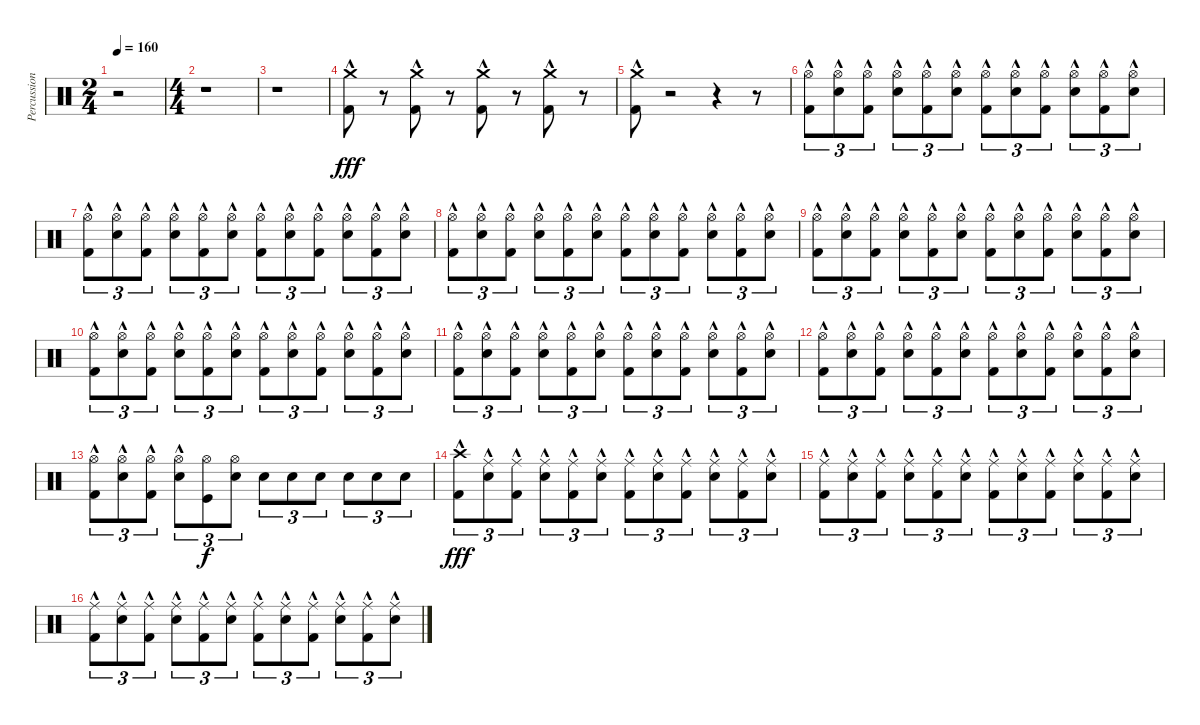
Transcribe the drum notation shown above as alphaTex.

\track ("Percussion" "Percussion") {instrument percussion}
\staff {score}
\articulation defaults
\ts (2 4)
\tempo 160
\clef neutral
\ks c
r.2{dy fff} |
\ts (4 4)
r.1 |
r.1 |
("Crash medium (hit)" "Kick (hit) 2"{hac}).8 r.8{volume 0} ("Crash medium (hit)" "Kick (hit) 2"{hac}).8{volume 13} r.8{volume 0} ("Crash medium (hit)" "Kick (hit) 2"{hac}).8{volume 13} r.8{volume 0} ("Crash medium (hit)" "Kick (hit) 2"{hac}).8{volume 13} r.8{volume 0} |
("Crash medium (hit)" "Kick (hit) 2"{hac}).8{volume 13} r.2{volume 0} r.4 r.8 |
("Hi-Hat (open)" "Kick (hit) 2"{hac}).8{tu (3 2) volume 16} ("Hi-Hat (open)" "Electric Snare (hit)"{hac}).8{tu (3 2)} ("Hi-Hat (open)" "Kick (hit) 2"{hac}).8{tu (3 2)} ("Hi-Hat (open)" "Electric Snare (hit)"{hac}).8{tu (3 2)} ("Hi-Hat (open)" "Kick (hit) 2"{hac}).8{tu (3 2)} ("Hi-Hat (open)" "Electric Snare (hit)"{hac}).8{tu (3 2)} ("Hi-Hat (open)" "Kick (hit) 2"{hac}).8{tu (3 2)} ("Hi-Hat (open)" "Electric Snare (hit)"{hac}).8{tu (3 2)} ("Hi-Hat (open)" "Kick (hit) 2"{hac}).8{tu (3 2)} ("Hi-Hat (open)" "Electric Snare (hit)"{hac}).8{tu (3 2)} ("Hi-Hat (open)" "Kick (hit) 2"{hac}).8{tu (3 2)} ("Hi-Hat (open)" "Electric Snare (hit)"{hac}).8{tu (3 2)} |
("Hi-Hat (open)" "Kick (hit) 2"{hac}).8{tu (3 2)} ("Hi-Hat (open)" "Electric Snare (hit)"{hac}).8{tu (3 2)} ("Hi-Hat (open)" "Kick (hit) 2"{hac}).8{tu (3 2)} ("Hi-Hat (open)" "Electric Snare (hit)"{hac}).8{tu (3 2)} ("Hi-Hat (open)" "Kick (hit) 2"{hac}).8{tu (3 2)} ("Hi-Hat (open)" "Electric Snare (hit)"{hac}).8{tu (3 2)} ("Hi-Hat (open)" "Kick (hit) 2"{hac}).8{tu (3 2)} ("Hi-Hat (open)" "Electric Snare (hit)"{hac}).8{tu (3 2)} ("Hi-Hat (open)" "Kick (hit) 2"{hac}).8{tu (3 2)} ("Hi-Hat (open)" "Electric Snare (hit)"{hac}).8{tu (3 2)} ("Hi-Hat (open)" "Kick (hit) 2"{hac}).8{tu (3 2)} ("Hi-Hat (open)" "Electric Snare (hit)"{hac}).8{tu (3 2)} |
("Hi-Hat (open)" "Kick (hit) 2"{hac}).8{tu (3 2)} ("Hi-Hat (open)" "Electric Snare (hit)"{hac}).8{tu (3 2)} ("Hi-Hat (open)" "Kick (hit) 2"{hac}).8{tu (3 2)} ("Hi-Hat (open)" "Electric Snare (hit)"{hac}).8{tu (3 2)} ("Hi-Hat (open)" "Kick (hit) 2"{hac}).8{tu (3 2)} ("Hi-Hat (open)" "Electric Snare (hit)"{hac}).8{tu (3 2)} ("Hi-Hat (open)" "Kick (hit) 2"{hac}).8{tu (3 2)} ("Hi-Hat (open)" "Electric Snare (hit)"{hac}).8{tu (3 2)} ("Hi-Hat (open)" "Kick (hit) 2"{hac}).8{tu (3 2)} ("Hi-Hat (open)" "Electric Snare (hit)"{hac}).8{tu (3 2)} ("Hi-Hat (open)" "Kick (hit) 2"{hac}).8{tu (3 2)} ("Hi-Hat (open)" "Electric Snare (hit)"{hac}).8{tu (3 2)} |
("Hi-Hat (open)" "Kick (hit) 2"{hac}).8{tu (3 2)} ("Hi-Hat (open)" "Electric Snare (hit)"{hac}).8{tu (3 2)} ("Hi-Hat (open)" "Kick (hit) 2"{hac}).8{tu (3 2)} ("Hi-Hat (open)" "Electric Snare (hit)"{hac}).8{tu (3 2)} ("Hi-Hat (open)" "Kick (hit) 2"{hac}).8{tu (3 2)} ("Hi-Hat (open)" "Electric Snare (hit)"{hac}).8{tu (3 2)} ("Hi-Hat (open)" "Kick (hit) 2"{hac}).8{tu (3 2)} ("Hi-Hat (open)" "Electric Snare (hit)"{hac}).8{tu (3 2)} ("Hi-Hat (open)" "Kick (hit) 2"{hac}).8{tu (3 2)} ("Hi-Hat (open)" "Electric Snare (hit)"{hac}).8{tu (3 2)} ("Hi-Hat (open)" "Kick (hit) 2"{hac}).8{tu (3 2)} ("Hi-Hat (open)" "Electric Snare (hit)"{hac}).8{tu (3 2)} |
("Hi-Hat (open)" "Kick (hit) 2"{hac}).8{tu (3 2)} ("Hi-Hat (open)" "Electric Snare (hit)"{hac}).8{tu (3 2)} ("Hi-Hat (open)" "Kick (hit) 2"{hac}).8{tu (3 2)} ("Hi-Hat (open)" "Electric Snare (hit)"{hac}).8{tu (3 2)} ("Hi-Hat (open)" "Kick (hit) 2"{hac}).8{tu (3 2)} ("Hi-Hat (open)" "Electric Snare (hit)"{hac}).8{tu (3 2)} ("Hi-Hat (open)" "Kick (hit) 2"{hac}).8{tu (3 2)} ("Hi-Hat (open)" "Electric Snare (hit)"{hac}).8{tu (3 2)} ("Hi-Hat (open)" "Kick (hit) 2"{hac}).8{tu (3 2)} ("Hi-Hat (open)" "Electric Snare (hit)"{hac}).8{tu (3 2)} ("Hi-Hat (open)" "Kick (hit) 2"{hac}).8{tu (3 2)} ("Hi-Hat (open)" "Electric Snare (hit)"{hac}).8{tu (3 2)} |
("Hi-Hat (open)" "Kick (hit) 2"{hac}).8{tu (3 2)} ("Hi-Hat (open)" "Electric Snare (hit)"{hac}).8{tu (3 2)} ("Hi-Hat (open)" "Kick (hit) 2"{hac}).8{tu (3 2)} ("Hi-Hat (open)" "Electric Snare (hit)"{hac}).8{tu (3 2)} ("Hi-Hat (open)" "Kick (hit) 2"{hac}).8{tu (3 2)} ("Hi-Hat (open)" "Electric Snare (hit)"{hac}).8{tu (3 2)} ("Hi-Hat (open)" "Kick (hit) 2"{hac}).8{tu (3 2)} ("Hi-Hat (open)" "Electric Snare (hit)"{hac}).8{tu (3 2)} ("Hi-Hat (open)" "Kick (hit) 2"{hac}).8{tu (3 2)} ("Hi-Hat (open)" "Electric Snare (hit)"{hac}).8{tu (3 2)} ("Hi-Hat (open)" "Kick (hit) 2"{hac}).8{tu (3 2)} ("Hi-Hat (open)" "Electric Snare (hit)"{hac}).8{tu (3 2)} |
("Hi-Hat (open)" "Kick (hit) 2"{hac}).8{tu (3 2)} ("Hi-Hat (open)" "Electric Snare (hit)"{hac}).8{tu (3 2)} ("Hi-Hat (open)" "Kick (hit) 2"{hac}).8{tu (3 2)} ("Hi-Hat (open)" "Electric Snare (hit)"{hac}).8{tu (3 2)} ("Hi-Hat (open)" "Kick (hit) 2"{hac}).8{tu (3 2)} ("Hi-Hat (open)" "Electric Snare (hit)"{hac}).8{tu (3 2)} ("Hi-Hat (open)" "Kick (hit) 2"{hac}).8{tu (3 2)} ("Hi-Hat (open)" "Electric Snare (hit)"{hac}).8{tu (3 2)} ("Hi-Hat (open)" "Kick (hit) 2"{hac}).8{tu (3 2)} ("Hi-Hat (open)" "Electric Snare (hit)"{hac}).8{tu (3 2)} ("Hi-Hat (open)" "Kick (hit) 2"{hac}).8{tu (3 2)} ("Hi-Hat (open)" "Electric Snare (hit)"{hac}).8{tu (3 2)} |
("Hi-Hat (open)" "Kick (hit) 2"{hac}).8{tu (3 2)} ("Hi-Hat (open)" "Electric Snare (hit)"{hac}).8{tu (3 2)} ("Hi-Hat (open)" "Kick (hit) 2"{hac}).8{tu (3 2)} ("Hi-Hat (open)" "Electric Snare (hit)"{hac}).8{tu (3 2)} ("Hi-Hat (open)" "Kick (hit)").8{tu (3 2) dy f} ("Hi-Hat (open)" "Electric Snare (hit)").8{tu (3 2)} "Electric Snare (hit)".8{tu (3 2)} "Electric Snare (hit)".8{tu (3 2)} "Electric Snare (hit)".8{tu (3 2)} "Electric Snare (hit)".8{tu (3 2)} "Electric Snare (hit)".8{tu (3 2)} "Electric Snare (hit)".8{tu (3 2)} |
("Crash high (hit)" "Kick (hit) 2"{hac}).8{tu (3 2) dy fff} ("Ride (middle)" "Electric Snare (hit)"{hac}).8{tu (3 2)} ("Ride (middle)" "Kick (hit) 2"{hac}).8{tu (3 2)} ("Ride (middle)" "Electric Snare (hit)"{hac}).8{tu (3 2)} ("Ride (middle)" "Kick (hit) 2"{hac}).8{tu (3 2)} ("Ride (middle)" "Electric Snare (hit)"{hac}).8{tu (3 2)} ("Ride (middle)" "Kick (hit) 2"{hac}).8{tu (3 2)} ("Ride (middle)" "Electric Snare (hit)"{hac}).8{tu (3 2)} ("Ride (middle)" "Kick (hit) 2"{hac}).8{tu (3 2)} ("Ride (middle)" "Electric Snare (hit)"{hac}).8{tu (3 2)} ("Ride (middle)" "Kick (hit) 2"{hac}).8{tu (3 2)} ("Ride (middle)" "Electric Snare (hit)"{hac}).8{tu (3 2)} |
("Ride (middle)" "Kick (hit) 2"{hac}).8{tu (3 2)} ("Ride (middle)" "Electric Snare (hit)"{hac}).8{tu (3 2)} ("Ride (middle)" "Kick (hit) 2"{hac}).8{tu (3 2)} ("Ride (middle)" "Electric Snare (hit)"{hac}).8{tu (3 2)} ("Ride (middle)" "Kick (hit) 2"{hac}).8{tu (3 2)} ("Ride (middle)" "Electric Snare (hit)"{hac}).8{tu (3 2)} ("Ride (middle)" "Kick (hit) 2"{hac}).8{tu (3 2)} ("Ride (middle)" "Electric Snare (hit)"{hac}).8{tu (3 2)} ("Ride (middle)" "Kick (hit) 2"{hac}).8{tu (3 2)} ("Ride (middle)" "Electric Snare (hit)"{hac}).8{tu (3 2)} ("Ride (middle)" "Kick (hit) 2"{hac}).8{tu (3 2)} ("Ride (middle)" "Electric Snare (hit)"{hac}).8{tu (3 2)} |
("Ride (middle)" "Kick (hit) 2"{hac}).8{tu (3 2)} ("Ride (middle)" "Electric Snare (hit)"{hac}).8{tu (3 2)} ("Ride (middle)" "Kick (hit) 2"{hac}).8{tu (3 2)} ("Ride (middle)" "Electric Snare (hit)"{hac}).8{tu (3 2)} ("Ride (middle)" "Kick (hit) 2"{hac}).8{tu (3 2)} ("Ride (middle)" "Electric Snare (hit)"{hac}).8{tu (3 2)} ("Ride (middle)" "Kick (hit) 2"{hac}).8{tu (3 2)} ("Ride (middle)" "Electric Snare (hit)"{hac}).8{tu (3 2)} ("Ride (middle)" "Kick (hit) 2"{hac}).8{tu (3 2)} ("Ride (middle)" "Electric Snare (hit)"{hac}).8{tu (3 2)} ("Ride (middle)" "Kick (hit) 2"{hac}).8{tu (3 2)} ("Ride (middle)" "Electric Snare (hit)"{hac}).8{tu (3 2)}
